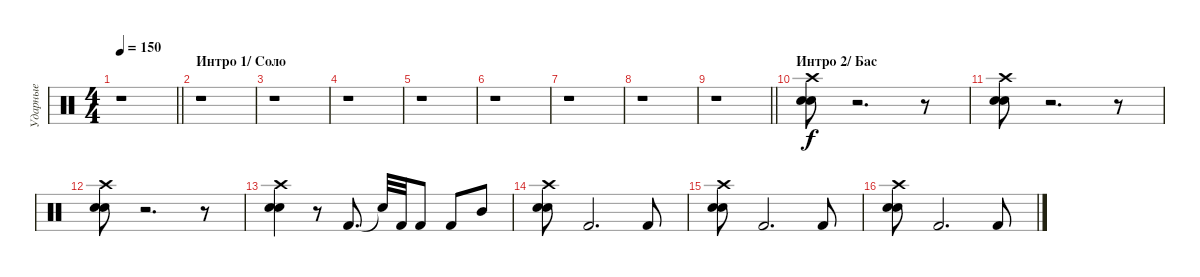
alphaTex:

\track ("Ударные" "Ударные") {instrument percussion}
\staff {score}
\articulation defaults
\ts (4 4)
\tempo 150
\clef neutral
\barLineRight lightlight
\ks c
r.1{dy f} |
\section ("" "Интро 1/ Соло")
r.1 |
r.1 |
r.1 |
r.1 |
r.1 |
r.1 |
r.1 |
\barLineRight lightlight
r.1 |
\section ("" "Интро 2/ Бас")
("Crash high (hit)" "Electric Snare (hit)" "Electric Snare (hit)").8 r.2{d} r.8 |
("Crash high (hit)" "Electric Snare (hit)" "Electric Snare (hit)").8 r.2{d} r.8 |
("Crash high (hit)" "Electric Snare (hit)" "Electric Snare (hit)").8 r.2{d} r.8 |
("Crash high (hit)" "Electric Snare (hit)" "Electric Snare (hit)").4 r.8 "Kick (hit) 2".8{d} "Snare (hit)"{t}.32 "Kick (hit) 2".32 "Kick (hit) 2".8 "Kick (hit) 2".8 "Mid Tom (hit)".8 |
("Crash high (hit)" "Electric Snare (hit)" "Electric Snare (hit)").8 "Kick (hit) 2".2{d} "Kick (hit) 2".8 |
("Crash high (hit)" "Electric Snare (hit)" "Electric Snare (hit)").8 "Kick (hit) 2".2{d} "Kick (hit) 2".8 |
("Crash high (hit)" "Electric Snare (hit)" "Electric Snare (hit)").8 "Kick (hit) 2".2{d} "Kick (hit) 2".8
